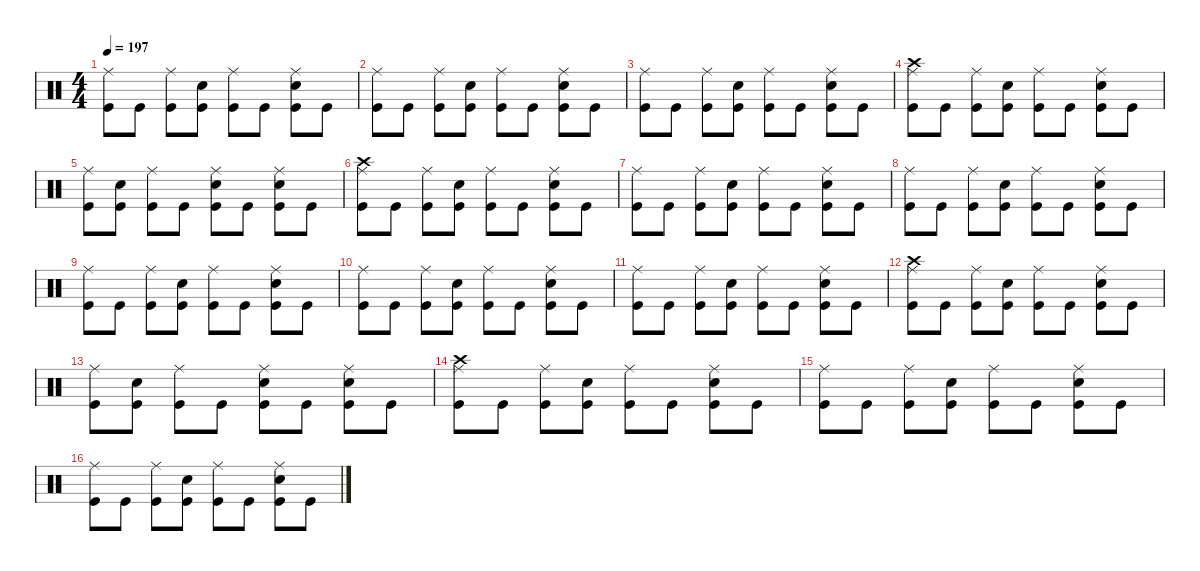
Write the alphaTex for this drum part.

\defaultSystemsLayout 4
\hideDynamics
\bracketExtendMode nobrackets
\singleTrackTrackNamePolicy hidden
\multiTrackTrackNamePolicy hidden
\firstSystemTrackNameMode fullname
\firstSystemTrackNameOrientation horizontal
\otherSystemsTrackNameOrientation horizontal
\track ("Drums" "drm.") {defaultSystemsLayout 4 instrument percussion}
\staff {score}
\articulation defaults
\ts (4 4)
\tempo 197
\clef neutral
\ks c
("Ride (middle)" "Kick (hit)").8{dy f beam Down} "Kick (hit)".8{beam Down} ("Ride (middle)" "Kick (hit)").8{beam Down} ("Snare (hit) 2" "Kick (hit)").8{beam Down} ("Ride (middle)" "Kick (hit)").8{beam Down} "Kick (hit)".8{beam Down} ("Ride (middle)" "Snare (hit) 2" "Kick (hit)").8{beam Down} "Kick (hit)".8{beam Down} |
("Ride (middle)" "Kick (hit)").8{beam Down} "Kick (hit)".8{beam Down} ("Ride (middle)" "Kick (hit)").8{beam Down} ("Snare (hit) 2" "Kick (hit)").8{beam Down} ("Ride (middle)" "Kick (hit)").8{beam Down} "Kick (hit)".8{beam Down} ("Ride (middle)" "Snare (hit) 2" "Kick (hit)").8{beam Down} "Kick (hit)".8{beam Down} |
("Ride (middle)" "Kick (hit)").8{beam Down} "Kick (hit)".8{beam Down} ("Ride (middle)" "Kick (hit)").8{beam Down} ("Snare (hit) 2" "Kick (hit)").8{beam Down} ("Ride (middle)" "Kick (hit)").8{beam Down} "Kick (hit)".8{beam Down} ("Ride (middle)" "Snare (hit) 2" "Kick (hit)").8{beam Down} "Kick (hit)".8{beam Down} |
("Crash high (hit)" "Ride (middle)" "Kick (hit)").8{beam Down} "Kick (hit)".8{beam Down} ("Ride (middle)" "Kick (hit)").8{beam Down} ("Snare (hit) 2" "Kick (hit)").8{beam Down} ("Ride (middle)" "Kick (hit)").8{beam Down} "Kick (hit)".8{beam Down} ("Ride (middle)" "Snare (hit) 2" "Kick (hit)").8{beam Down} "Kick (hit)".8{beam Down} |
("Ride (middle)" "Kick (hit)").8{beam Down} ("Snare (hit) 2" "Kick (hit)").8{beam Down} ("Ride (middle)" "Kick (hit)").8{beam Down} "Kick (hit)".8{beam Down} ("Ride (middle)" "Snare (hit) 2" "Kick (hit)").8{beam Down} "Kick (hit)".8{beam Down} ("Ride (middle)" "Snare (hit) 2" "Kick (hit)").8{beam Down} "Kick (hit)".8{beam Down} |
("Crash high (hit)" "Ride (middle)" "Kick (hit)").8{beam Down} "Kick (hit)".8{beam Down} ("Ride (middle)" "Kick (hit)").8{beam Down} ("Snare (hit) 2" "Kick (hit)").8{beam Down} ("Ride (middle)" "Kick (hit)").8{beam Down} "Kick (hit)".8{beam Down} ("Ride (middle)" "Snare (hit) 2" "Kick (hit)").8{beam Down} "Kick (hit)".8{beam Down} |
("Ride (middle)" "Kick (hit)").8{beam Down} "Kick (hit)".8{beam Down} ("Ride (middle)" "Kick (hit)").8{beam Down} ("Snare (hit) 2" "Kick (hit)").8{beam Down} ("Ride (middle)" "Kick (hit)").8{beam Down} "Kick (hit)".8{beam Down} ("Ride (middle)" "Snare (hit) 2" "Kick (hit)").8{beam Down} "Kick (hit)".8{beam Down} |
("Ride (middle)" "Kick (hit)").8{beam Down} "Kick (hit)".8{beam Down} ("Ride (middle)" "Kick (hit)").8{beam Down} ("Snare (hit) 2" "Kick (hit)").8{beam Down} ("Ride (middle)" "Kick (hit)").8{beam Down} "Kick (hit)".8{beam Down} ("Ride (middle)" "Snare (hit) 2" "Kick (hit)").8{beam Down} "Kick (hit)".8{beam Down} |
("Ride (middle)" "Kick (hit)").8{beam Down} "Kick (hit)".8{beam Down} ("Ride (middle)" "Kick (hit)").8{beam Down} ("Snare (hit) 2" "Kick (hit)").8{beam Down} ("Ride (middle)" "Kick (hit)").8{beam Down} "Kick (hit)".8{beam Down} ("Ride (middle)" "Snare (hit) 2" "Kick (hit)").8{beam Down} "Kick (hit)".8{beam Down} |
("Ride (middle)" "Kick (hit)").8{beam Down} "Kick (hit)".8{beam Down} ("Ride (middle)" "Kick (hit)").8{beam Down} ("Snare (hit) 2" "Kick (hit)").8{beam Down} ("Ride (middle)" "Kick (hit)").8{beam Down} "Kick (hit)".8{beam Down} ("Ride (middle)" "Snare (hit) 2" "Kick (hit)").8{beam Down} "Kick (hit)".8{beam Down} |
("Ride (middle)" "Kick (hit)").8{beam Down} "Kick (hit)".8{beam Down} ("Ride (middle)" "Kick (hit)").8{beam Down} ("Snare (hit) 2" "Kick (hit)").8{beam Down} ("Ride (middle)" "Kick (hit)").8{beam Down} "Kick (hit)".8{beam Down} ("Ride (middle)" "Snare (hit) 2" "Kick (hit)").8{beam Down} "Kick (hit)".8{beam Down} |
("Crash high (hit)" "Ride (middle)" "Kick (hit)").8{beam Down} "Kick (hit)".8{beam Down} ("Ride (middle)" "Kick (hit)").8{beam Down} ("Snare (hit) 2" "Kick (hit)").8{beam Down} ("Ride (middle)" "Kick (hit)").8{beam Down} "Kick (hit)".8{beam Down} ("Ride (middle)" "Snare (hit) 2" "Kick (hit)").8{beam Down} "Kick (hit)".8{beam Down} |
("Ride (middle)" "Kick (hit)").8{beam Down} ("Snare (hit) 2" "Kick (hit)").8{beam Down} ("Ride (middle)" "Kick (hit)").8{beam Down} "Kick (hit)".8{beam Down} ("Ride (middle)" "Snare (hit) 2" "Kick (hit)").8{beam Down} "Kick (hit)".8{beam Down} ("Ride (middle)" "Snare (hit) 2" "Kick (hit)").8{beam Down} "Kick (hit)".8{beam Down} |
("Crash high (hit)" "Ride (middle)" "Kick (hit)").8{beam Down} "Kick (hit)".8{beam Down} ("Ride (middle)" "Kick (hit)").8{beam Down} ("Snare (hit) 2" "Kick (hit)").8{beam Down} ("Ride (middle)" "Kick (hit)").8{beam Down} "Kick (hit)".8{beam Down} ("Ride (middle)" "Snare (hit) 2" "Kick (hit)").8{beam Down} "Kick (hit)".8{beam Down} |
("Ride (middle)" "Kick (hit)").8{beam Down} "Kick (hit)".8{beam Down} ("Ride (middle)" "Kick (hit)").8{beam Down} ("Snare (hit) 2" "Kick (hit)").8{beam Down} ("Ride (middle)" "Kick (hit)").8{beam Down} "Kick (hit)".8{beam Down} ("Ride (middle)" "Snare (hit) 2" "Kick (hit)").8{beam Down} "Kick (hit)".8{beam Down} |
("Ride (middle)" "Kick (hit)").8{beam Down} "Kick (hit)".8{beam Down} ("Ride (middle)" "Kick (hit)").8{beam Down} ("Snare (hit) 2" "Kick (hit)").8{beam Down} ("Ride (middle)" "Kick (hit)").8{beam Down} "Kick (hit)".8{beam Down} ("Ride (middle)" "Snare (hit) 2" "Kick (hit)").8{beam Down} "Kick (hit)".8{beam Down}
